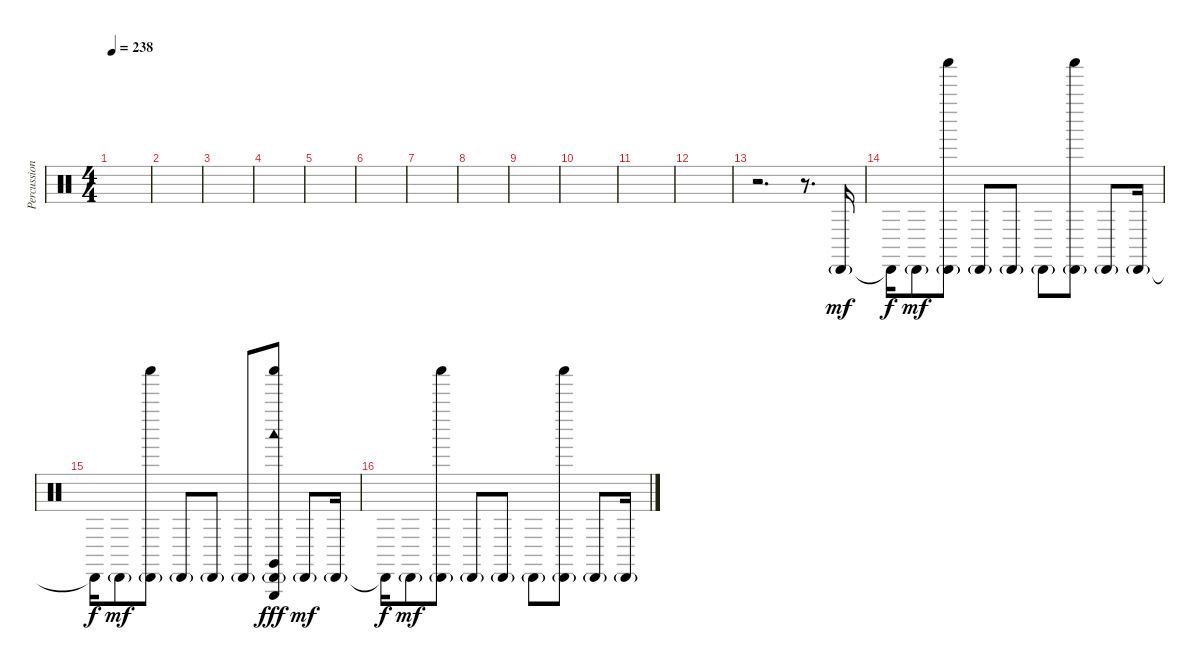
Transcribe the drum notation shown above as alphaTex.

\track ("Percussion" "Percussion") {instrument percussion}
\staff {score}
\articulation defaults
\ts (4 4)
\tempo 238
\clef neutral
\ks c
|
|
|
|
|
|
|
|
|
|
|
|
r.2{d} r.8{d} "Cabasa (hit)"{g}.16{dy mf} |
"Cabasa (hit)"{t}.16{dy f} "Cabasa (hit)"{g}.8{dy mf} ("Shaker (hit)" "Cabasa (hit)"{g}).8 "Cabasa (hit)"{g}.8 "Cabasa (hit)"{g}.8 "Cabasa (hit)"{g}.8 ("Shaker (hit)" "Cabasa (hit)"{g}).8 "Cabasa (hit)"{g}.8 "Cabasa (hit)"{g}.16 |
"Cabasa (hit)"{t}.16{dy f} "Cabasa (hit)"{g}.8{dy mf} ("Shaker (hit)" "Cabasa (hit)"{g}).8 "Cabasa (hit)"{g}.8 "Cabasa (hit)"{g}.8 "Cabasa (hit)"{g}.8 ("Shaker (hit)" "Cabasa (hit)"{g} "Claves (hit)" "Woodblock low (hit)" "Triangle (hit)").8{dy fff} "Cabasa (hit)"{g}.8{dy mf} "Cabasa (hit)"{g}.16 |
"Cabasa (hit)"{t}.16{dy f} "Cabasa (hit)"{g}.8{dy mf} ("Shaker (hit)" "Cabasa (hit)"{g}).8 "Cabasa (hit)"{g}.8 "Cabasa (hit)"{g}.8 "Cabasa (hit)"{g}.8 ("Shaker (hit)" "Cabasa (hit)"{g}).8 "Cabasa (hit)"{g}.8 "Cabasa (hit)"{g}.16
